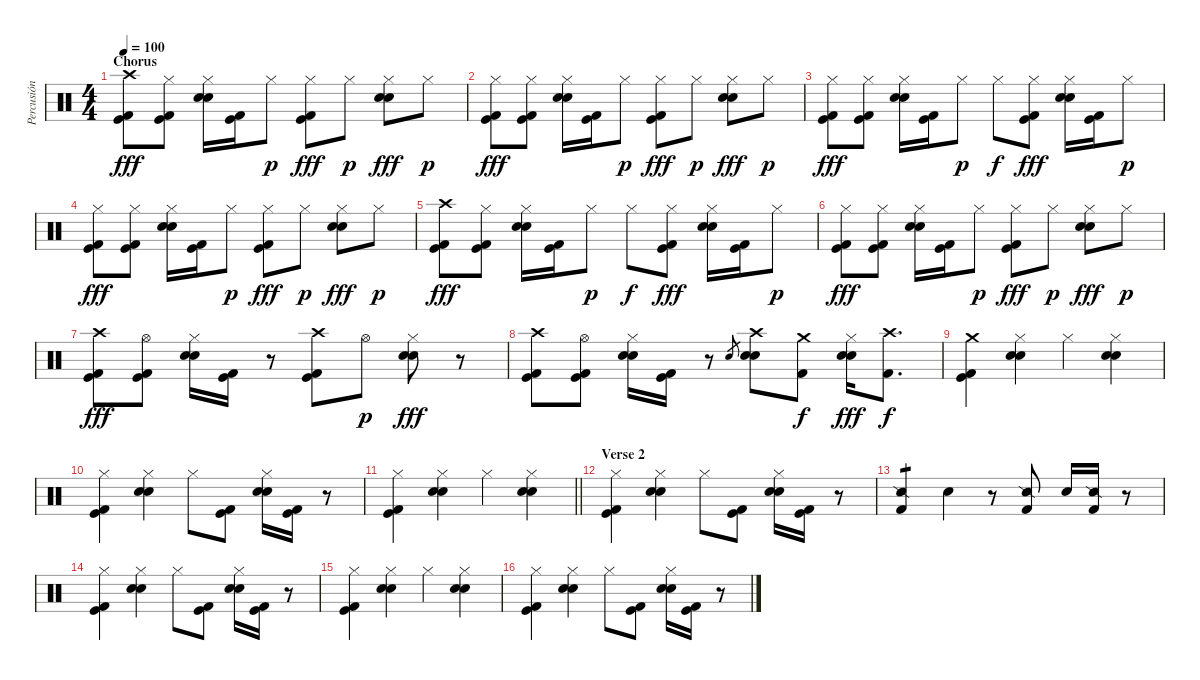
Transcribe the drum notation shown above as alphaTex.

\track ("Percusión" "Percusión") {instrument percussion}
\staff {score}
\articulation defaults
\ts (4 4)
\section ("" "Chorus")
\tempo 100
\clef neutral
\ks c
("Crash high (hit)" "Kick (hit)" "Kick (hit) 2").8{dy fff} ("Hi-Hat (closed)" "Kick (hit)" "Kick (hit) 2").8 ("Hi-Hat (closed)" "Snare (hit) 2" "Electric Snare (hit)").16 ("Kick (hit)" "Kick (hit) 2").16 "Hi-Hat (closed)".8{dy p} ("Hi-Hat (closed)" "Kick (hit)" "Kick (hit) 2").8{dy fff} "Hi-Hat (closed)".8{dy p} ("Hi-Hat (closed)" "Snare (hit) 2" "Electric Snare (hit)").8{dy fff} "Hi-Hat (closed)".8{dy p} |
("Hi-Hat (closed)" "Kick (hit)" "Kick (hit) 2").8{dy fff} ("Hi-Hat (closed)" "Kick (hit)" "Kick (hit) 2").8 ("Hi-Hat (closed)" "Snare (hit) 2" "Electric Snare (hit)").16 ("Kick (hit)" "Kick (hit) 2").16 "Hi-Hat (closed)".8{dy p} ("Hi-Hat (closed)" "Kick (hit)" "Kick (hit) 2").8{dy fff} "Hi-Hat (closed)".8{dy p} ("Hi-Hat (closed)" "Snare (hit) 2" "Electric Snare (hit)").8{dy fff} "Hi-Hat (closed)".8{dy p} |
("Hi-Hat (closed)" "Kick (hit)" "Kick (hit) 2").8{dy fff} ("Hi-Hat (closed)" "Kick (hit)" "Kick (hit) 2").8 ("Hi-Hat (closed)" "Snare (hit) 2" "Electric Snare (hit)").16 ("Kick (hit)" "Kick (hit) 2").16 "Hi-Hat (closed)".8{dy p} "Hi-Hat (closed)".8{dy f} ("Hi-Hat (closed)" "Kick (hit)" "Kick (hit) 2").8{dy fff} ("Hi-Hat (closed)" "Snare (hit) 2" "Electric Snare (hit)").16 ("Kick (hit)" "Kick (hit) 2").16 "Hi-Hat (closed)".8{dy p} |
("Hi-Hat (closed)" "Kick (hit)" "Kick (hit) 2").8{dy fff} ("Hi-Hat (closed)" "Kick (hit)" "Kick (hit) 2").8 ("Hi-Hat (closed)" "Snare (hit) 2" "Electric Snare (hit)").16 ("Kick (hit)" "Kick (hit) 2").16 "Hi-Hat (closed)".8{dy p} ("Hi-Hat (closed)" "Kick (hit)" "Kick (hit) 2").8{dy fff} "Hi-Hat (closed)".8{dy p} ("Hi-Hat (closed)" "Snare (hit) 2" "Electric Snare (hit)").8{dy fff} "Hi-Hat (closed)".8{dy p} |
("Crash high (hit)" "Kick (hit)" "Kick (hit) 2").8{dy fff} ("Hi-Hat (closed)" "Kick (hit)" "Kick (hit) 2").8 ("Hi-Hat (closed)" "Snare (hit) 2" "Electric Snare (hit)").16 ("Kick (hit)" "Kick (hit) 2").16 "Hi-Hat (closed)".8{dy p} "Hi-Hat (closed)".8{dy f} ("Hi-Hat (closed)" "Kick (hit)" "Kick (hit) 2").8{dy fff} ("Hi-Hat (closed)" "Snare (hit) 2" "Electric Snare (hit)").16 ("Kick (hit)" "Kick (hit) 2").16 "Hi-Hat (closed)".8{dy p} |
("Hi-Hat (closed)" "Kick (hit)" "Kick (hit) 2").8{dy fff} ("Hi-Hat (closed)" "Kick (hit)" "Kick (hit) 2").8 ("Hi-Hat (closed)" "Snare (hit) 2" "Electric Snare (hit)").16 ("Kick (hit)" "Kick (hit) 2").16 "Hi-Hat (closed)".8{dy p} ("Hi-Hat (closed)" "Kick (hit)" "Kick (hit) 2").8{dy fff} "Hi-Hat (closed)".8{dy p} ("Hi-Hat (closed)" "Snare (hit) 2" "Electric Snare (hit)").8{dy fff} "Hi-Hat (closed)".8{dy p} |
("Crash high (hit)" "Kick (hit)" "Kick (hit) 2").8{dy fff} ("Hi-Hat (open)" "Kick (hit)" "Kick (hit) 2").8 ("Hi-Hat (closed)" "Snare (hit) 2" "Electric Snare (hit)").16 ("Kick (hit)" "Kick (hit) 2").16 r.8 ("Crash high (hit)" "Kick (hit)" "Kick (hit) 2").8 "Hi-Hat (open)".8{dy p} ("Hi-Hat (closed)" "Snare (hit) 2" "Electric Snare (hit)").8{dy fff} r.8 |
("Crash high (hit)" "Kick (hit)" "Kick (hit) 2").8 ("Hi-Hat (open)" "Kick (hit)" "Kick (hit) 2").8 ("Hi-Hat (closed)" "Snare (hit) 2" "Electric Snare (hit)").16 ("Kick (hit)" "Kick (hit) 2").16 r.8 "Snare (hit) 2".8{gr} ("Crash high (hit)" "Snare (hit) 2" "Electric Snare (hit)").8 ("Crash medium (hit)" "Kick (hit) 2").8{dy f} ("Hi-Hat (closed)" "Snare (hit) 2" "Electric Snare (hit)").16{dy fff} ("Crash high (hit)" "Kick (hit) 2").8{d dy f} |
("Crash medium (hit)" "Kick (hit)" "Kick (hit) 2").4 ("Hi-Hat (closed)" "Snare (hit) 2" "Electric Snare (hit)").4 "Hi-Hat (closed)".4 ("Hi-Hat (closed)" "Snare (hit) 2" "Electric Snare (hit)").4 |
("Hi-Hat (closed)" "Kick (hit)" "Kick (hit) 2").4 ("Hi-Hat (closed)" "Snare (hit) 2" "Electric Snare (hit)").4 "Hi-Hat (closed)".8 ("Kick (hit)" "Kick (hit) 2").8 ("Hi-Hat (closed)" "Snare (hit) 2" "Electric Snare (hit)").16 ("Kick (hit)" "Kick (hit) 2").16 r.8 |
\barLineRight lightlight
("Hi-Hat (closed)" "Kick (hit)" "Kick (hit) 2").4 ("Hi-Hat (closed)" "Snare (hit) 2" "Electric Snare (hit)").4 "Hi-Hat (closed)".4 ("Hi-Hat (closed)" "Snare (hit) 2" "Electric Snare (hit)").4 |
\section ("" "Verse 2")
("Hi-Hat (closed)" "Kick (hit)" "Kick (hit) 2").4 ("Hi-Hat (closed)" "Snare (hit) 2" "Electric Snare (hit)").4 "Hi-Hat (closed)".8 ("Kick (hit)" "Kick (hit) 2").8 ("Hi-Hat (closed)" "Snare (hit) 2" "Electric Snare (hit)").16 ("Kick (hit)" "Kick (hit) 2").16 r.8 |
("Kick (hit) 2" "Snare (side stick) 2").4{tp 1} "Electric Snare (hit)".4 r.8 ("Kick (hit) 2" "Snare (side stick) 2").8 "Electric Snare (hit)".16 ("Kick (hit) 2" "Snare (side stick) 2").16 r.8 |
("Hi-Hat (closed)" "Kick (hit)" "Kick (hit) 2").4 ("Hi-Hat (closed)" "Snare (hit) 2" "Electric Snare (hit)").4 "Hi-Hat (closed)".8 ("Kick (hit)" "Kick (hit) 2").8 ("Hi-Hat (closed)" "Snare (hit) 2" "Electric Snare (hit)").16 ("Kick (hit)" "Kick (hit) 2").16 r.8 |
("Hi-Hat (closed)" "Kick (hit)" "Kick (hit) 2").4 ("Hi-Hat (closed)" "Snare (hit) 2" "Electric Snare (hit)").4 "Hi-Hat (closed)".4 ("Hi-Hat (closed)" "Snare (hit) 2" "Electric Snare (hit)").4 |
("Hi-Hat (closed)" "Kick (hit)" "Kick (hit) 2").4 ("Hi-Hat (closed)" "Snare (hit) 2" "Electric Snare (hit)").4 "Hi-Hat (closed)".8 ("Kick (hit)" "Kick (hit) 2").8 ("Hi-Hat (closed)" "Snare (hit) 2" "Electric Snare (hit)").16 ("Kick (hit)" "Kick (hit) 2").16 r.8
